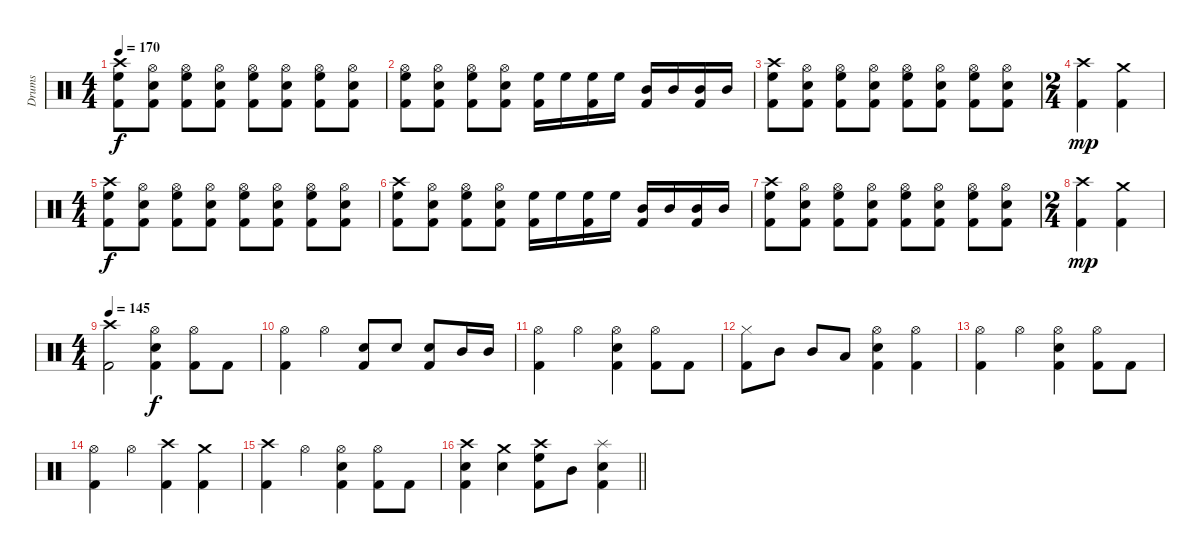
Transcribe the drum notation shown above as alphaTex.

\track ("Drums" "Drums") {instrument percussion}
\staff {score}
\articulation defaults
\ts (4 4)
\tempo 170
\clef neutral
\ks c
("High Floor Tom (hit)" "Crash high (hit)" "Kick (hit) 2").8{dy f} ("Snare (hit) 2" "Hi-Hat (open)" "Kick (hit) 2").8 ("High Floor Tom (hit)" "Hi-Hat (open)" "Kick (hit) 2").8 ("Snare (hit) 2" "Hi-Hat (open)" "Kick (hit) 2").8 ("High Floor Tom (hit)" "Hi-Hat (open)" "Kick (hit) 2").8 ("Snare (hit) 2" "Hi-Hat (open)" "Kick (hit) 2").8 ("High Floor Tom (hit)" "Hi-Hat (open)" "Kick (hit) 2").8 ("Snare (hit) 2" "Hi-Hat (open)" "Kick (hit) 2").8 |
("High Floor Tom (hit)" "Hi-Hat (open)" "Kick (hit) 2").8 ("Snare (hit) 2" "Hi-Hat (open)" "Kick (hit) 2").8 ("High Floor Tom (hit)" "Hi-Hat (open)" "Kick (hit) 2").8 ("Snare (hit) 2" "Hi-Hat (open)" "Kick (hit) 2").8 ("High Floor Tom (hit)" "Kick (hit) 2").16 "High Floor Tom (hit)".16 ("High Floor Tom (hit)" "Kick (hit) 2").16 "High Floor Tom (hit)".16 ("Mid Tom (hit)" "Kick (hit) 2").16 "Mid Tom (hit)".16 ("Mid Tom (hit)" "Kick (hit) 2").16 "Mid Tom (hit)".16 |
("High Floor Tom (hit)" "Crash high (hit)" "Kick (hit) 2").8 ("Snare (hit) 2" "Hi-Hat (open)" "Kick (hit) 2").8 ("High Floor Tom (hit)" "Hi-Hat (open)" "Kick (hit) 2").8 ("Snare (hit) 2" "Hi-Hat (open)" "Kick (hit) 2").8 ("High Floor Tom (hit)" "Hi-Hat (open)" "Kick (hit) 2").8 ("Snare (hit) 2" "Hi-Hat (open)" "Kick (hit) 2").8 ("High Floor Tom (hit)" "Hi-Hat (open)" "Kick (hit) 2").8 ("Snare (hit) 2" "Hi-Hat (open)" "Kick (hit) 2").8 |
\ts (2 4)
("Crash high (hit)" "Kick (hit) 2").4{dy mp} ("Crash medium (hit)" "Kick (hit) 2").4 |
\ts (4 4)
("High Floor Tom (hit)" "Crash high (hit)" "Kick (hit) 2").8{dy f} ("Snare (hit) 2" "Hi-Hat (open)" "Kick (hit) 2").8 ("High Floor Tom (hit)" "Hi-Hat (open)" "Kick (hit) 2").8 ("Snare (hit) 2" "Hi-Hat (open)" "Kick (hit) 2").8 ("High Floor Tom (hit)" "Hi-Hat (open)" "Kick (hit) 2").8 ("Snare (hit) 2" "Hi-Hat (open)" "Kick (hit) 2").8 ("High Floor Tom (hit)" "Hi-Hat (open)" "Kick (hit) 2").8 ("Snare (hit) 2" "Hi-Hat (open)" "Kick (hit) 2").8 |
("High Floor Tom (hit)" "Crash high (hit)" "Kick (hit) 2").8 ("Snare (hit) 2" "Hi-Hat (open)" "Kick (hit) 2").8 ("High Floor Tom (hit)" "Hi-Hat (open)" "Kick (hit) 2").8 ("Snare (hit) 2" "Hi-Hat (open)" "Kick (hit) 2").8 ("High Floor Tom (hit)" "Kick (hit) 2").16 "High Floor Tom (hit)".16 ("High Floor Tom (hit)" "Kick (hit) 2").16 "High Floor Tom (hit)".16 ("Mid Tom (hit)" "Kick (hit) 2").16 "Mid Tom (hit)".16 ("Mid Tom (hit)" "Kick (hit) 2").16 "Mid Tom (hit)".16 |
("High Floor Tom (hit)" "Crash high (hit)" "Kick (hit) 2").8 ("Snare (hit) 2" "Hi-Hat (open)" "Kick (hit) 2").8 ("High Floor Tom (hit)" "Hi-Hat (open)" "Kick (hit) 2").8 ("Snare (hit) 2" "Hi-Hat (open)" "Kick (hit) 2").8 ("High Floor Tom (hit)" "Hi-Hat (open)" "Kick (hit) 2").8 ("Snare (hit) 2" "Hi-Hat (open)" "Kick (hit) 2").8 ("High Floor Tom (hit)" "Hi-Hat (open)" "Kick (hit) 2").8 ("Snare (hit) 2" "Hi-Hat (open)" "Kick (hit) 2").8 |
\ts (2 4)
("Crash high (hit)" "Kick (hit) 2").4{dy mp} ("Crash medium (hit)" "Kick (hit) 2").4 |
\ts (4 4)
\tempo 145
("Crash high (hit)" "Kick (hit) 2").2 ("Snare (hit) 2" "Hi-Hat (open)" "Kick (hit) 2").4{dy f} ("Hi-Hat (open)" "Kick (hit) 2").8 "Kick (hit) 2".8 |
("Hi-Hat (open)" "Kick (hit) 2").4 "Hi-Hat (open)".4 ("Snare (hit) 2" "Kick (hit) 2").8 "Snare (hit) 2".8 ("Snare (hit) 2" "Kick (hit) 2").8 "Mid Tom (hit)".16 "Mid Tom (hit)".16 |
("Hi-Hat (open)" "Kick (hit) 2").4 "Hi-Hat (open)".4 ("Snare (hit) 2" "Hi-Hat (open)" "Kick (hit) 2").4 ("Hi-Hat (open)" "Kick (hit) 2").8 "Kick (hit) 2".8 |
("Hi-Hat (closed)" "Kick (hit) 2").8 "Mid Tom (hit)".8 "Mid Tom (hit)".8 "Low Tom (hit)".8 ("Snare (hit) 2" "Hi-Hat (open)" "Kick (hit) 2").4 ("Hi-Hat (open)" "Kick (hit) 2").4 |
("Hi-Hat (open)" "Kick (hit) 2").4 "Hi-Hat (open)".4 ("Snare (hit) 2" "Hi-Hat (open)" "Kick (hit) 2").4 ("Hi-Hat (open)" "Kick (hit) 2").8 "Kick (hit) 2".8 |
("Hi-Hat (open)" "Kick (hit) 2").4 "Hi-Hat (open)".4 ("Crash high (hit)" "Kick (hit) 2").4 ("Crash medium (hit)" "Kick (hit) 2").4 |
("Crash high (hit)" "Kick (hit) 2").4 "Hi-Hat (open)".4 ("Snare (hit) 2" "Hi-Hat (open)" "Kick (hit) 2").4 ("Hi-Hat (open)" "Kick (hit) 2").8 "Kick (hit) 2".8 |
\barLineRight lightlight
("Snare (hit) 2" "Crash high (hit)" "Kick (hit) 2").4 ("Snare (hit) 2" "Crash medium (hit)").4 ("High Floor Tom (hit)" "Crash high (hit)" "Kick (hit) 2").8 "Mid Tom (hit)".8 ("Snare (hit) 2" "Splash (hit)" "Kick (hit) 2").4
